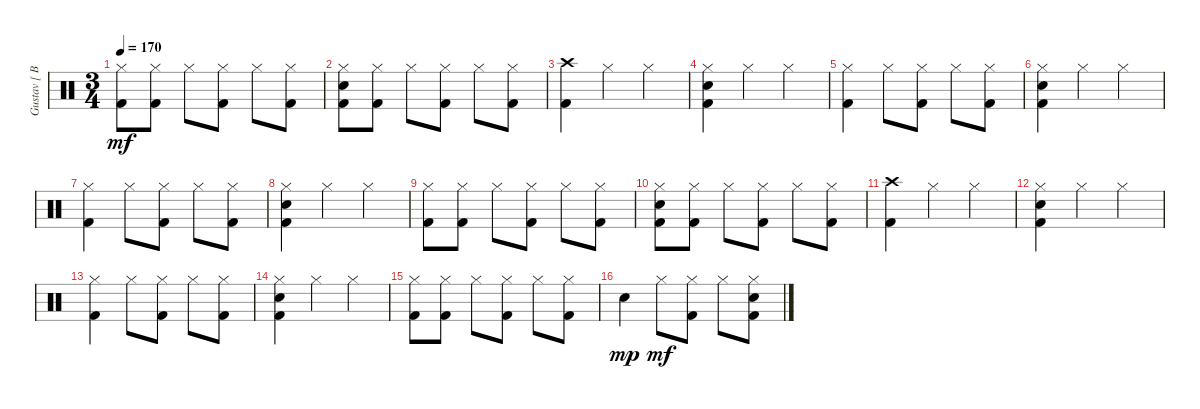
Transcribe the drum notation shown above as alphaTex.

\track ("Gustav [ Batterie ]" "Gustav [ B") {instrument percussion}
\staff {score}
\articulation defaults
\ts (3 4)
\tempo 170
\clef neutral
\ks c
("Hi-Hat (closed)" "Kick (hit) 2").8{dy mf} ("Hi-Hat (closed)" "Kick (hit) 2").8 "Hi-Hat (closed)".8 ("Hi-Hat (closed)" "Kick (hit) 2").8 "Hi-Hat (closed)".8 ("Hi-Hat (closed)" "Kick (hit) 2").8 |
("Hi-Hat (closed)" "Snare (hit) 2" "Kick (hit) 2").8 ("Hi-Hat (closed)" "Kick (hit) 2").8 "Hi-Hat (closed)".8 ("Hi-Hat (closed)" "Kick (hit) 2").8 "Hi-Hat (closed)".8 ("Hi-Hat (closed)" "Kick (hit) 2").8 |
("Crash high (hit)" "Kick (hit) 2").4 "Hi-Hat (closed)".4 "Hi-Hat (closed)".4 |
("Hi-Hat (closed)" "Snare (hit) 2" "Kick (hit) 2").4 "Hi-Hat (closed)".4 "Hi-Hat (closed)".4 |
("Hi-Hat (closed)" "Kick (hit) 2").4 "Hi-Hat (closed)".8 ("Hi-Hat (closed)" "Kick (hit) 2").8 "Hi-Hat (closed)".8 ("Hi-Hat (closed)" "Kick (hit) 2").8 |
("Hi-Hat (closed)" "Snare (hit) 2" "Kick (hit) 2").4 "Hi-Hat (closed)".4 "Hi-Hat (closed)".4 |
("Hi-Hat (closed)" "Kick (hit) 2").4 "Hi-Hat (closed)".8 ("Hi-Hat (closed)" "Kick (hit) 2").8 "Hi-Hat (closed)".8 ("Hi-Hat (closed)" "Kick (hit) 2").8 |
("Hi-Hat (closed)" "Snare (hit) 2" "Kick (hit) 2").4 "Hi-Hat (closed)".4 "Hi-Hat (closed)".4 |
("Hi-Hat (closed)" "Kick (hit) 2").8 ("Hi-Hat (closed)" "Kick (hit) 2").8 "Hi-Hat (closed)".8 ("Hi-Hat (closed)" "Kick (hit) 2").8 "Hi-Hat (closed)".8 ("Hi-Hat (closed)" "Kick (hit) 2").8 |
("Hi-Hat (closed)" "Snare (hit) 2" "Kick (hit) 2").8 ("Hi-Hat (closed)" "Kick (hit) 2").8 "Hi-Hat (closed)".8 ("Hi-Hat (closed)" "Kick (hit) 2").8 "Hi-Hat (closed)".8 ("Hi-Hat (closed)" "Kick (hit) 2").8 |
("Crash high (hit)" "Kick (hit) 2").4 "Hi-Hat (closed)".4 "Hi-Hat (closed)".4 |
("Hi-Hat (closed)" "Snare (hit) 2" "Kick (hit) 2").4 "Hi-Hat (closed)".4 "Hi-Hat (closed)".4 |
("Hi-Hat (closed)" "Kick (hit) 2").4 "Hi-Hat (closed)".8 ("Hi-Hat (closed)" "Kick (hit) 2").8 "Hi-Hat (closed)".8 ("Hi-Hat (closed)" "Kick (hit) 2").8 |
("Hi-Hat (closed)" "Snare (hit) 2" "Kick (hit) 2").4 "Hi-Hat (closed)".4 "Hi-Hat (closed)".4 |
("Hi-Hat (closed)" "Kick (hit) 2").8 ("Hi-Hat (closed)" "Kick (hit) 2").8 "Hi-Hat (closed)".8 ("Hi-Hat (closed)" "Kick (hit) 2").8 "Hi-Hat (closed)".8 ("Hi-Hat (closed)" "Kick (hit) 2").8 |
"Snare (hit) 2".4{dy mp} "Hi-Hat (closed)".8{dy mf} ("Hi-Hat (closed)" "Kick (hit) 2").8 "Hi-Hat (closed)".8 ("Hi-Hat (closed)" "Snare (hit) 2" "Kick (hit) 2").8
